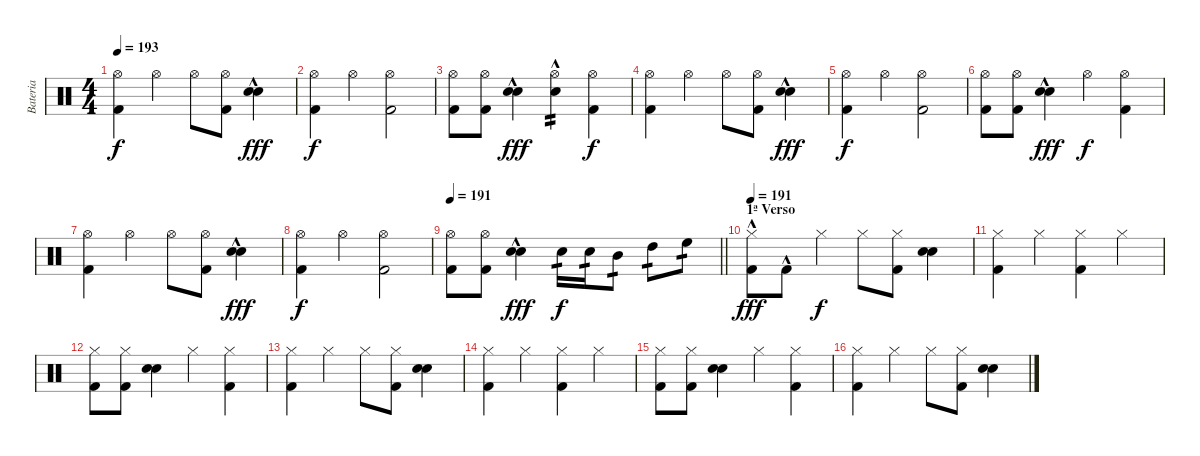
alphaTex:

\track ("Bateria" "Bateria") {instrument percussion}
\staff {score}
\articulation defaults
\ts (4 4)
\tempo 193
\clef neutral
\ks c
("Hi-Hat (open)" "Kick (hit) 2").4{dy f} "Hi-Hat (open)".4 "Hi-Hat (open)".8 ("Hi-Hat (open)" "Kick (hit) 2").8 ("Electric Snare (hit)"{hac} "Electric Snare (hit)"{hac}).4{dy fff} |
("Hi-Hat (open)" "Kick (hit) 2").4{dy f} "Hi-Hat (open)".4 ("Hi-Hat (open)" "Kick (hit) 2").2 |
("Hi-Hat (open)" "Kick (hit) 2").8 ("Hi-Hat (open)" "Kick (hit) 2").8 ("Electric Snare (hit)"{hac} "Electric Snare (hit)"{hac}).4{dy fff} ("Hi-Hat (open)" "Electric Snare (hit)"{hac}).4{tp 2} ("Hi-Hat (open)" "Kick (hit) 2").4{dy f} |
("Hi-Hat (open)" "Kick (hit) 2").4 "Hi-Hat (open)".4 "Hi-Hat (open)".8 ("Hi-Hat (open)" "Kick (hit) 2").8 ("Electric Snare (hit)"{hac} "Electric Snare (hit)"{hac}).4{dy fff} |
("Hi-Hat (open)" "Kick (hit) 2").4{dy f} "Hi-Hat (open)".4 ("Hi-Hat (open)" "Kick (hit) 2").2 |
("Hi-Hat (open)" "Kick (hit) 2").8 ("Hi-Hat (open)" "Kick (hit) 2").8 ("Electric Snare (hit)"{hac} "Electric Snare (hit)"{hac}).4{dy fff} "Hi-Hat (open)".4{dy f} ("Hi-Hat (open)" "Kick (hit) 2").4 |
("Hi-Hat (open)" "Kick (hit) 2").4 "Hi-Hat (open)".4 "Hi-Hat (open)".8 ("Hi-Hat (open)" "Kick (hit) 2").8 ("Electric Snare (hit)"{hac} "Electric Snare (hit)"{hac}).4{dy fff} |
("Hi-Hat (open)" "Kick (hit) 2").4{dy f} "Hi-Hat (open)".4 ("Hi-Hat (open)" "Kick (hit) 2").2 |
\tempo 191
\barLineRight lightlight
("Hi-Hat (open)" "Kick (hit) 2").8 ("Hi-Hat (open)" "Kick (hit) 2").8 ("Electric Snare (hit)"{hac} "Electric Snare (hit)"{hac}).4{dy fff} "Electric Snare (hit)".16{tp 1 dy f} "Electric Snare (hit)".16{tp 1} "Mid Tom (hit)".8{tp 1} "High Tom (hit)".8{tp 1} "High Floor Tom (hit)".8{tp 1} |
\section ("" "1ª Verso")
\tempo 193
\tempo 191
("Hi-Hat (closed)" "Kick (hit) 2"{hac}).8{dy fff} "Kick (hit) 2"{hac}.8 "Hi-Hat (closed)".4{dy f} "Hi-Hat (closed)".8 ("Hi-Hat (closed)" "Kick (hit) 2").8 ("Electric Snare (hit)" "Electric Snare (hit)").4 |
("Hi-Hat (closed)" "Kick (hit) 2").4 "Hi-Hat (closed)".4 ("Hi-Hat (closed)" "Kick (hit) 2").4 "Hi-Hat (closed)".4 |
("Hi-Hat (closed)" "Kick (hit) 2").8 ("Hi-Hat (closed)" "Kick (hit) 2").8 ("Electric Snare (hit)" "Electric Snare (hit)").4 "Hi-Hat (closed)".4 ("Hi-Hat (closed)" "Kick (hit) 2").4 |
("Hi-Hat (closed)" "Kick (hit) 2").4 "Hi-Hat (closed)".4 "Hi-Hat (closed)".8 ("Hi-Hat (closed)" "Kick (hit) 2").8 ("Electric Snare (hit)" "Electric Snare (hit)").4 |
("Hi-Hat (closed)" "Kick (hit) 2").4 "Hi-Hat (closed)".4 ("Hi-Hat (closed)" "Kick (hit) 2").4 "Hi-Hat (closed)".4 |
("Hi-Hat (closed)" "Kick (hit) 2").8 ("Hi-Hat (closed)" "Kick (hit) 2").8 ("Electric Snare (hit)" "Electric Snare (hit)").4 "Hi-Hat (closed)".4 ("Hi-Hat (closed)" "Kick (hit) 2").4 |
("Hi-Hat (closed)" "Kick (hit) 2").4 "Hi-Hat (closed)".4 "Hi-Hat (closed)".8 ("Hi-Hat (closed)" "Kick (hit) 2").8 ("Electric Snare (hit)" "Electric Snare (hit)").4
